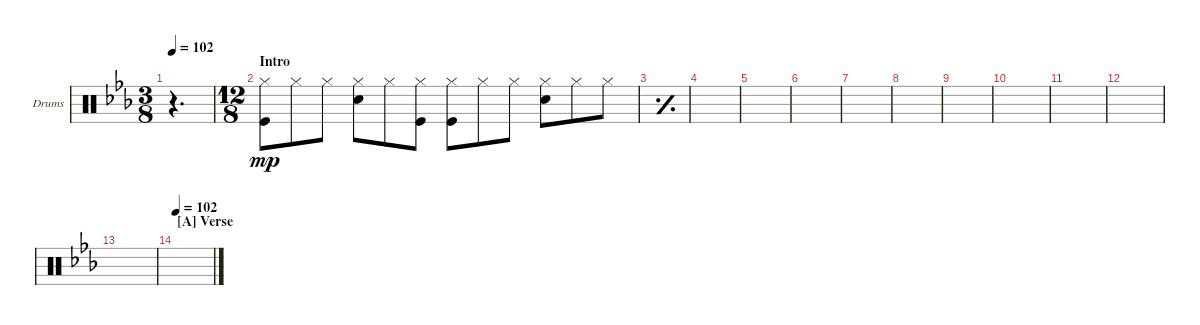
\defaultSystemsLayout 4
\bracketExtendMode groupsimilarinstruments
\firstSystemTrackNameOrientation horizontal
\otherSystemsTrackNameOrientation horizontal
\track ("Drums (Simplified)" "Drums") {instrument percussion}
\staff {score}
\articulation defaults
\ts (3 8)
\ac
\tempo 102
\clef neutral
\ks eb
r.4{d dy mp} |
\ts (12 8)
\section ("" "Intro")
("Kick (hit)" "Hi-Hat (closed)").8 "Hi-Hat (closed)".8 "Hi-Hat (closed)".8 ("Hi-Hat (closed)" "Snare (hit) 2").8 "Hi-Hat (closed)".8 ("Hi-Hat (closed)" "Kick (hit)").8 ("Hi-Hat (closed)" "Kick (hit)").8 "Hi-Hat (closed)".8 "Hi-Hat (closed)".8 ("Hi-Hat (closed)" "Snare (hit) 2").8 "Hi-Hat (closed)".8 "Hi-Hat (closed)".8 |
\simile simple
|
|
|
|
|
|
|
|
|
|
|
\section ("A" "Verse")
\tempo 102
